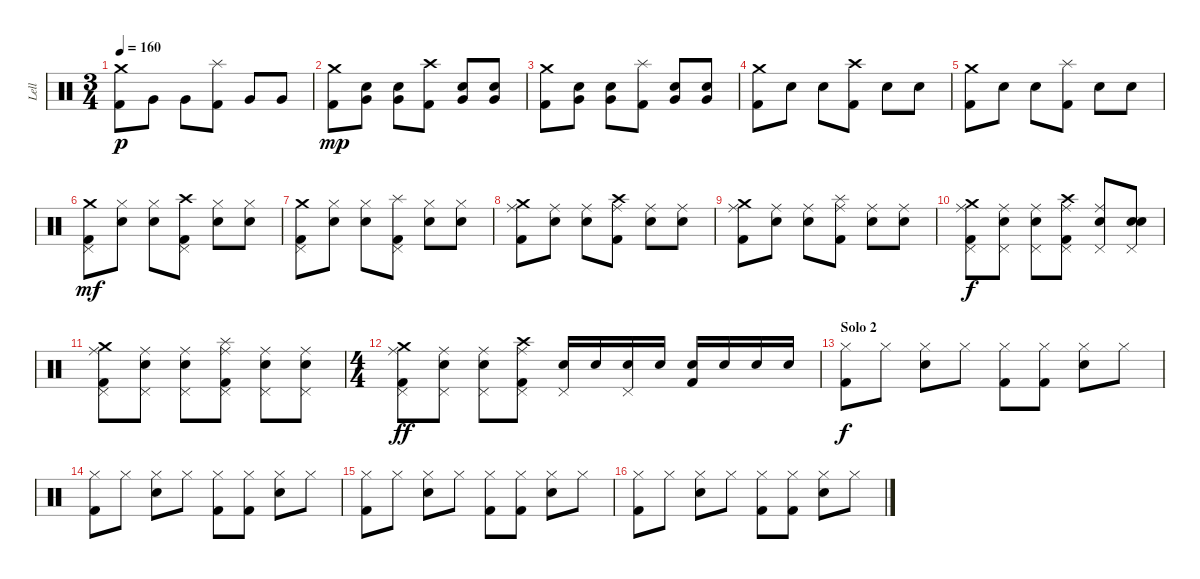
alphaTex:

\track ("Lell" "Lell") {instrument percussion}
\staff {score}
\articulation defaults
\ts (3 4)
\tempo 160
\clef neutral
\ks c
("Crash medium (hit)" "Kick (hit) 2").8{dy p} "Very Low Tom (hit)".8 "Very Low Tom (hit)".8 ("Splash (hit)" "Kick (hit) 2").8 "Very Low Tom (hit)".8 "Very Low Tom (hit)".8 |
("Crash medium (hit)" "Kick (hit) 2").8{dy mp} ("Very Low Tom (hit)" "Snare (hit) 2").8 ("Very Low Tom (hit)" "Snare (hit) 2").8 ("Crash high (hit)" "Kick (hit) 2").8 ("Very Low Tom (hit)" "Snare (hit) 2").8 ("Very Low Tom (hit)" "Snare (hit) 2").8 |
("Crash medium (hit)" "Kick (hit) 2").8 ("Very Low Tom (hit)" "Snare (hit) 2").8 ("Very Low Tom (hit)" "Snare (hit) 2").8 ("Splash (hit)" "Kick (hit) 2").8 ("Very Low Tom (hit)" "Snare (hit) 2").8 ("Very Low Tom (hit)" "Snare (hit) 2").8 |
("Crash medium (hit)" "Kick (hit) 2").8 "Snare (hit) 2".8 "Snare (hit) 2".8 ("Crash high (hit)" "Kick (hit) 2").8 "Snare (hit) 2".8 "Snare (hit) 2".8 |
("Crash medium (hit)" "Kick (hit) 2").8 "Snare (hit) 2".8 "Snare (hit) 2".8 ("Splash (hit)" "Kick (hit) 2").8 "Snare (hit) 2".8 "Snare (hit) 2".8 |
("Crash medium (hit)" "Pedal Hi-Hat (hit)" "Kick (hit) 2").8{dy mf} ("Hi-Hat (closed)" "Snare (hit) 2").8 ("Hi-Hat (closed)" "Snare (hit) 2").8 ("Crash high (hit)" "Pedal Hi-Hat (hit)" "Kick (hit) 2").8 ("Hi-Hat (closed)" "Snare (hit) 2").8 ("Hi-Hat (closed)" "Snare (hit) 2").8 |
("Crash medium (hit)" "Pedal Hi-Hat (hit)" "Kick (hit) 2").8 ("Hi-Hat (closed)" "Snare (hit) 2").8 ("Hi-Hat (closed)" "Snare (hit) 2").8 ("Splash (hit)" "Pedal Hi-Hat (hit)" "Kick (hit) 2").8 ("Hi-Hat (closed)" "Snare (hit) 2").8 ("Hi-Hat (closed)" "Snare (hit) 2").8 |
("Crash medium (hit)" "Ride (middle)" "Kick (hit) 2").8 ("Ride (middle)" "Snare (hit) 2").8 ("Ride (middle)" "Snare (hit) 2").8 ("Crash high (hit)" "Ride (middle)" "Kick (hit) 2").8 ("Ride (middle)" "Snare (hit) 2").8 ("Ride (middle)" "Snare (hit) 2").8 |
("Crash medium (hit)" "Ride (middle)" "Kick (hit) 2").8 ("Ride (middle)" "Snare (hit) 2").8 ("Ride (middle)" "Snare (hit) 2").8 ("Splash (hit)" "Ride (middle)" "Kick (hit) 2").8 ("Ride (middle)" "Snare (hit) 2").8 ("Ride (middle)" "Snare (hit) 2").8 |
("Crash medium (hit)" "Pedal Hi-Hat (hit)" "Ride (middle)" "Kick (hit) 2").8{dy f} ("Pedal Hi-Hat (hit)" "Ride (middle)" "Snare (hit) 2").8 ("Pedal Hi-Hat (hit)" "Ride (middle)" "Snare (hit) 2").8 ("Crash high (hit)" "Pedal Hi-Hat (hit)" "Ride (middle)" "Kick (hit) 2").8 ("Pedal Hi-Hat (hit)" "Ride (middle)" "Snare (hit) 2").8 ("Pedal Hi-Hat (hit)" "Snare (hit)" "Snare (hit) 2").8 |
("Crash medium (hit)" "Pedal Hi-Hat (hit)" "Ride (middle)" "Kick (hit) 2").8 ("Pedal Hi-Hat (hit)" "Ride (middle)" "Snare (hit) 2").8 ("Pedal Hi-Hat (hit)" "Ride (middle)" "Snare (hit) 2").8 ("Splash (hit)" "Pedal Hi-Hat (hit)" "Ride (middle)" "Kick (hit) 2").8 ("Pedal Hi-Hat (hit)" "Ride (middle)" "Snare (hit) 2").8 ("Pedal Hi-Hat (hit)" "Ride (middle)" "Snare (hit) 2").8 |
\ts (4 4)
("Crash medium (hit)" "Pedal Hi-Hat (hit)" "Ride (middle)" "Kick (hit) 2").8{dy ff} ("Pedal Hi-Hat (hit)" "Ride (middle)" "Snare (hit) 2").8 ("Pedal Hi-Hat (hit)" "Ride (middle)" "Snare (hit) 2").8 ("Crash high (hit)" "Pedal Hi-Hat (hit)" "Ride (middle)" "Kick (hit) 2").8 ("Pedal Hi-Hat (hit)" "Snare (hit) 2").16 "Snare (hit) 2".16 ("Pedal Hi-Hat (hit)" "Snare (hit) 2").16 "Snare (hit) 2".16 ("Snare (hit) 2" "Kick (hit) 2").16 "Snare (hit) 2".16 "Snare (hit) 2".16 "Snare (hit) 2".16 |
\section ("" "Solo 2")
("Hi-Hat (closed)" "Kick (hit) 2").8{dy f} "Hi-Hat (closed)".8 ("Hi-Hat (closed)" "Snare (hit) 2").8 "Hi-Hat (closed)".8 ("Hi-Hat (closed)" "Kick (hit) 2").8 ("Hi-Hat (closed)" "Kick (hit) 2").8 ("Hi-Hat (closed)" "Snare (hit) 2").8 "Hi-Hat (closed)".8 |
("Hi-Hat (closed)" "Kick (hit) 2").8 "Hi-Hat (closed)".8 ("Hi-Hat (closed)" "Snare (hit) 2").8 "Hi-Hat (closed)".8 ("Hi-Hat (closed)" "Kick (hit) 2").8 ("Hi-Hat (closed)" "Kick (hit) 2").8 ("Hi-Hat (closed)" "Snare (hit) 2").8 "Hi-Hat (closed)".8 |
("Hi-Hat (closed)" "Kick (hit) 2").8 "Hi-Hat (closed)".8 ("Hi-Hat (closed)" "Snare (hit) 2").8 "Hi-Hat (closed)".8 ("Hi-Hat (closed)" "Kick (hit) 2").8 ("Hi-Hat (closed)" "Kick (hit) 2").8 ("Hi-Hat (closed)" "Snare (hit) 2").8 "Hi-Hat (closed)".8 |
("Hi-Hat (closed)" "Kick (hit) 2").8 "Hi-Hat (closed)".8 ("Hi-Hat (closed)" "Snare (hit) 2").8 "Hi-Hat (closed)".8 ("Hi-Hat (closed)" "Kick (hit) 2").8 ("Hi-Hat (closed)" "Kick (hit) 2").8 ("Hi-Hat (closed)" "Snare (hit) 2").8 "Hi-Hat (closed)".8
